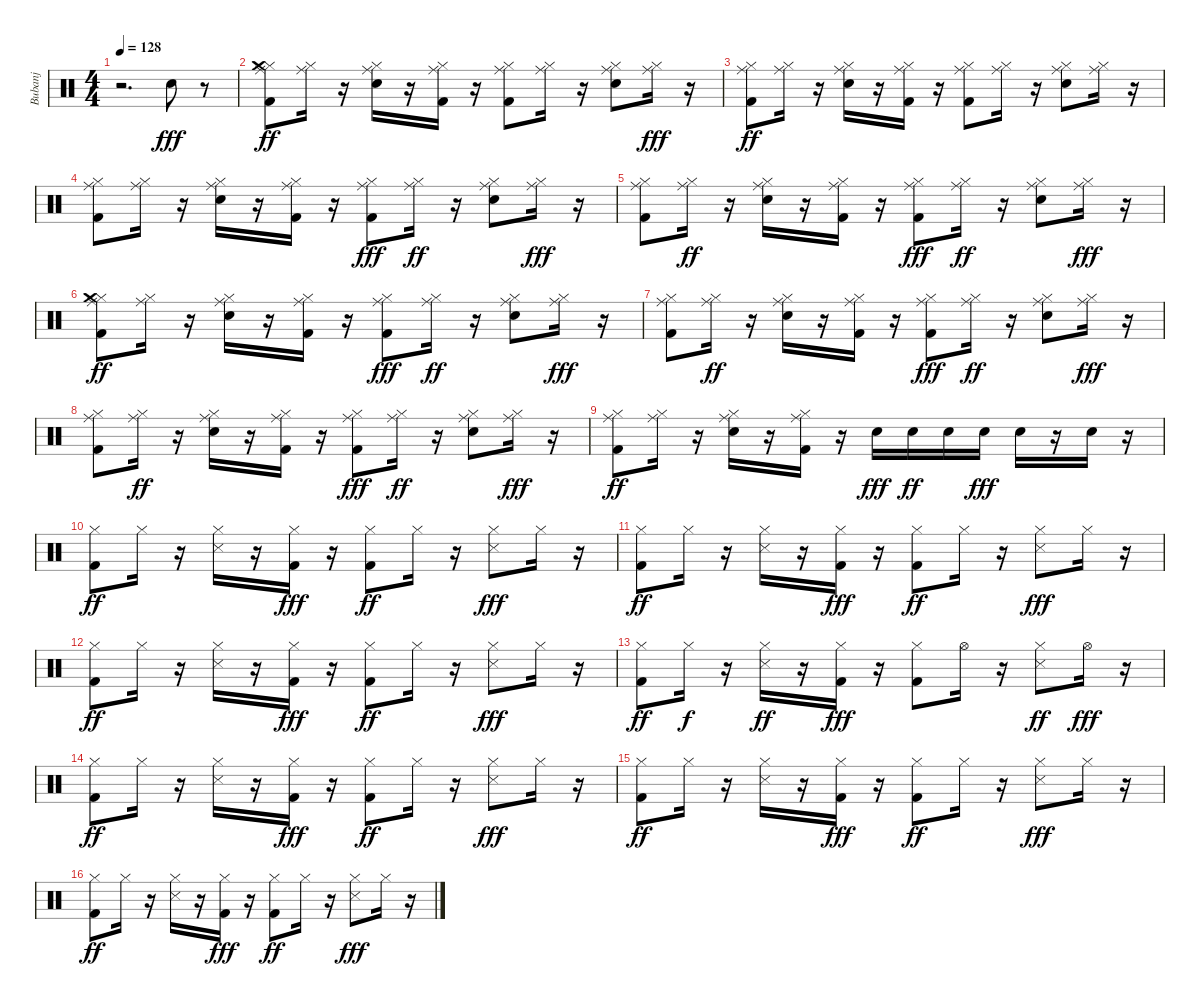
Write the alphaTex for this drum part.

\track ("Bubanj" "Bubanj") {instrument percussion}
\staff {score}
\articulation defaults
\ts (4 4)
\tempo 128
\clef neutral
\ks c
r.2{d dy fff} "Electric Snare (hit)".8 r.8 |
("Hi-Hat (closed)" "Kick (hit) 2" "Crash medium (hit)" "Ride (middle)").8{dy ff} ("Hi-Hat (closed)" "Ride (middle)").16 r.16 ("Hi-Hat (closed)" "Electric Snare (hit)" "Ride (middle)").16 r.16 ("Kick (hit) 2" "Hi-Hat (closed)" "Ride (middle)").16 r.16 ("Hi-Hat (closed)" "Kick (hit) 2" "Ride (middle)").8 ("Hi-Hat (closed)" "Ride (middle)").16 r.16 ("Hi-Hat (closed)" "Electric Snare (hit)" "Ride (middle)").8 ("Hi-Hat (closed)" "Ride (middle)").16{dy fff} r.16 |
("Hi-Hat (closed)" "Kick (hit) 2" "Ride (middle)").8{dy ff} ("Hi-Hat (closed)" "Ride (middle)").16 r.16 ("Hi-Hat (closed)" "Electric Snare (hit)" "Ride (middle)").16 r.16 ("Kick (hit) 2" "Hi-Hat (closed)" "Ride (middle)").16 r.16 ("Hi-Hat (closed)" "Kick (hit) 2" "Ride (middle)").8 ("Hi-Hat (closed)" "Ride (middle)").16 r.16 ("Hi-Hat (closed)" "Electric Snare (hit)" "Ride (middle)").8 ("Hi-Hat (closed)" "Ride (middle)").16 r.16 |
("Hi-Hat (closed)" "Kick (hit) 2" "Ride (middle)").8 ("Hi-Hat (closed)" "Ride (middle)").16 r.16 ("Hi-Hat (closed)" "Electric Snare (hit)" "Ride (middle)").16 r.16 ("Kick (hit) 2" "Hi-Hat (closed)" "Ride (middle)").16 r.16 ("Hi-Hat (closed)" "Kick (hit) 2" "Ride (middle)").8{dy fff} ("Hi-Hat (closed)" "Ride (middle)").16{dy ff} r.16 ("Hi-Hat (closed)" "Electric Snare (hit)" "Ride (middle)").8 ("Hi-Hat (closed)" "Ride (middle)").16{dy fff} r.16 |
("Hi-Hat (closed)" "Kick (hit) 2" "Ride (middle)").8 ("Hi-Hat (closed)" "Ride (middle)").16{dy ff} r.16 ("Hi-Hat (closed)" "Electric Snare (hit)" "Ride (middle)").16 r.16 ("Kick (hit) 2" "Hi-Hat (closed)" "Ride (middle)").16 r.16 ("Hi-Hat (closed)" "Kick (hit) 2" "Ride (middle)").8{dy fff} ("Hi-Hat (closed)" "Ride (middle)").16{dy ff} r.16 ("Hi-Hat (closed)" "Electric Snare (hit)" "Ride (middle)").8 ("Hi-Hat (closed)" "Ride (middle)").16{dy fff} r.16 |
("Hi-Hat (closed)" "Kick (hit) 2" "Crash medium (hit)" "Ride (middle)").8{dy ff} ("Hi-Hat (closed)" "Ride (middle)").16 r.16 ("Hi-Hat (closed)" "Electric Snare (hit)" "Ride (middle)").16 r.16 ("Kick (hit) 2" "Hi-Hat (closed)" "Ride (middle)").16 r.16 ("Hi-Hat (closed)" "Kick (hit) 2" "Ride (middle)").8{dy fff} ("Hi-Hat (closed)" "Ride (middle)").16{dy ff} r.16 ("Hi-Hat (closed)" "Electric Snare (hit)" "Ride (middle)").8 ("Hi-Hat (closed)" "Ride (middle)").16{dy fff} r.16 |
("Hi-Hat (closed)" "Kick (hit) 2" "Ride (middle)").8 ("Hi-Hat (closed)" "Ride (middle)").16{dy ff} r.16 ("Hi-Hat (closed)" "Electric Snare (hit)" "Ride (middle)").16 r.16 ("Kick (hit) 2" "Hi-Hat (closed)" "Ride (middle)").16 r.16 ("Hi-Hat (closed)" "Kick (hit) 2" "Ride (middle)").8{dy fff} ("Hi-Hat (closed)" "Ride (middle)").16{dy ff} r.16 ("Hi-Hat (closed)" "Electric Snare (hit)" "Ride (middle)").8 ("Hi-Hat (closed)" "Ride (middle)").16{dy fff} r.16 |
("Hi-Hat (closed)" "Kick (hit) 2" "Ride (middle)").8 ("Hi-Hat (closed)" "Ride (middle)").16{dy ff} r.16 ("Hi-Hat (closed)" "Electric Snare (hit)" "Ride (middle)").16 r.16 ("Kick (hit) 2" "Hi-Hat (closed)" "Ride (middle)").16 r.16 ("Hi-Hat (closed)" "Kick (hit) 2" "Ride (middle)").8{dy fff} ("Hi-Hat (closed)" "Ride (middle)").16{dy ff} r.16 ("Hi-Hat (closed)" "Electric Snare (hit)" "Ride (middle)").8 ("Hi-Hat (closed)" "Ride (middle)").16{dy fff} r.16 |
("Kick (hit) 2" "Hi-Hat (closed)" "Ride (middle)").8{dy ff} ("Hi-Hat (closed)" "Ride (middle)").16 r.16 ("Electric Snare (hit)" "Hi-Hat (closed)" "Ride (middle)").16 r.16 ("Kick (hit) 2" "Hi-Hat (closed)" "Ride (middle)").16 r.16 "Electric Snare (hit)".16{dy fff} "Electric Snare (hit)".16{dy ff} "Electric Snare (hit)".16 "Electric Snare (hit)".16{dy fff} "Electric Snare (hit)".16 r.16 "Electric Snare (hit)".16 r.16 |
("Kick (hit) 2" "Hi-Hat (closed)").8{dy ff} "Hi-Hat (closed)".16 r.16 ("Snare (side stick) 3" "Hi-Hat (closed)").16 r.16 ("Hi-Hat (closed)" "Kick (hit) 2").16{dy fff} r.16 ("Hi-Hat (closed)" "Kick (hit) 2").8{dy ff} "Hi-Hat (closed)".16 r.16 ("Hi-Hat (closed)" "Snare (side stick) 3").8{dy fff} "Hi-Hat (closed)".16 r.16 |
("Kick (hit) 2" "Hi-Hat (closed)").8{dy ff} "Hi-Hat (closed)".16 r.16 ("Snare (side stick) 3" "Hi-Hat (closed)").16 r.16 ("Hi-Hat (closed)" "Kick (hit) 2").16{dy fff} r.16 ("Hi-Hat (closed)" "Kick (hit) 2").8{dy ff} "Hi-Hat (closed)".16 r.16 ("Hi-Hat (closed)" "Snare (side stick) 3").8{dy fff} "Hi-Hat (closed)".16 r.16 |
("Kick (hit) 2" "Hi-Hat (closed)").8{dy ff} "Hi-Hat (closed)".16 r.16 ("Snare (side stick) 3" "Hi-Hat (closed)").16 r.16 ("Hi-Hat (closed)" "Kick (hit) 2").16{dy fff} r.16 ("Hi-Hat (closed)" "Kick (hit) 2").8{dy ff} "Hi-Hat (closed)".16 r.16 ("Hi-Hat (closed)" "Snare (side stick) 3").8{dy fff} "Hi-Hat (closed)".16 r.16 |
("Kick (hit) 2" "Hi-Hat (closed)").8{dy ff} "Hi-Hat (closed)".16{dy f} r.16 ("Hi-Hat (closed)" "Snare (side stick) 3").16{dy ff} r.16 ("Kick (hit) 2" "Hi-Hat (closed)").16{dy fff} r.16 ("Hi-Hat (closed)" "Kick (hit) 2").8 "Hi-Hat (open)".16 r.16 ("Hi-Hat (closed)" "Snare (side stick) 3").8{dy ff} "Hi-Hat (open)".16{dy fff} r.16 |
("Kick (hit) 2" "Hi-Hat (closed)").8{dy ff} "Hi-Hat (closed)".16 r.16 ("Snare (side stick) 3" "Hi-Hat (closed)").16 r.16 ("Hi-Hat (closed)" "Kick (hit) 2").16{dy fff} r.16 ("Hi-Hat (closed)" "Kick (hit) 2").8{dy ff} "Hi-Hat (closed)".16 r.16 ("Hi-Hat (closed)" "Snare (side stick) 3").8{dy fff} "Hi-Hat (closed)".16 r.16 |
("Kick (hit) 2" "Hi-Hat (closed)").8{dy ff} "Hi-Hat (closed)".16 r.16 ("Snare (side stick) 3" "Hi-Hat (closed)").16 r.16 ("Hi-Hat (closed)" "Kick (hit) 2").16{dy fff} r.16 ("Hi-Hat (closed)" "Kick (hit) 2").8{dy ff} "Hi-Hat (closed)".16 r.16 ("Hi-Hat (closed)" "Snare (side stick) 3").8{dy fff} "Hi-Hat (closed)".16 r.16 |
("Kick (hit) 2" "Hi-Hat (closed)").8{dy ff} "Hi-Hat (closed)".16 r.16 ("Snare (side stick) 3" "Hi-Hat (closed)").16 r.16 ("Hi-Hat (closed)" "Kick (hit) 2").16{dy fff} r.16 ("Hi-Hat (closed)" "Kick (hit) 2").8{dy ff} "Hi-Hat (closed)".16 r.16 ("Hi-Hat (closed)" "Snare (side stick) 3").8{dy fff} "Hi-Hat (closed)".16 r.16
